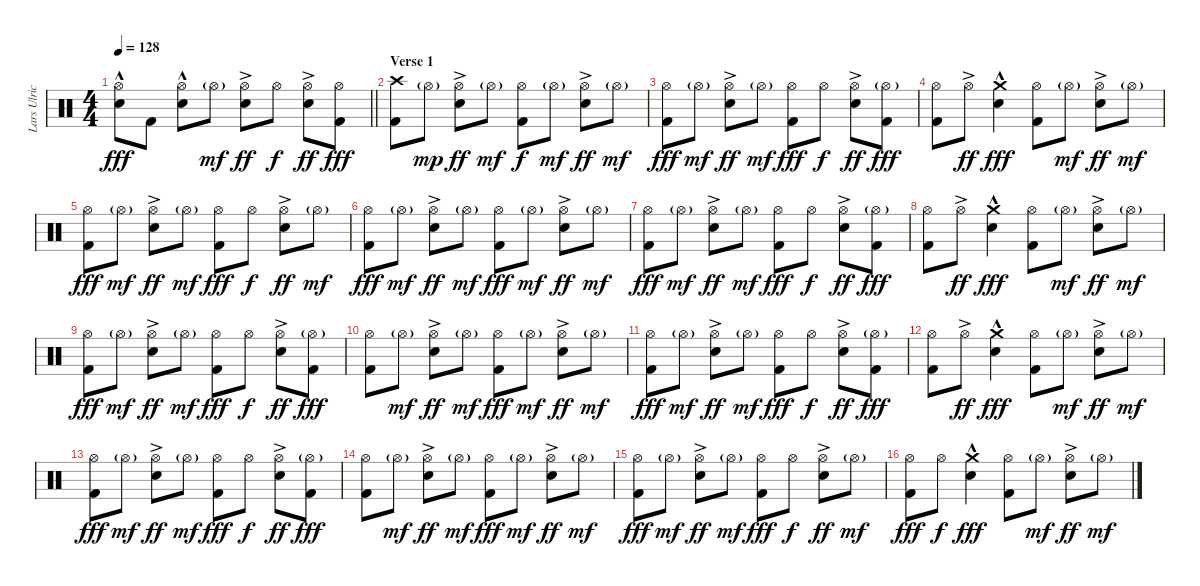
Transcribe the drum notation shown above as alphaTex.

\track ("Lars Ulrich (Drums)" "Lars Ulric") {instrument percussion}
\staff {score}
\articulation defaults
\ts (4 4)
\tempo 128
\clef neutral
\barLineRight lightlight
\ks c
("Hi-Hat (open)"{hac} "Electric Snare (hit)"{hac}).8{dy fff} "Kick (hit) 2".8 ("Hi-Hat (open)"{hac} "Electric Snare (hit)"{hac}).8 "Hi-Hat (open)"{g}.8{dy mf} ("Hi-Hat (open)"{ac} "Electric Snare (hit)"{ac}).8{dy ff} "Hi-Hat (open)".8{dy f} ("Hi-Hat (open)"{ac} "Electric Snare (hit)"{ac}).8{dy ff} ("Hi-Hat (open)" "Kick (hit) 2").8{dy fff} |
\section ("" "Verse 1")
("Crash high (hit)" "Kick (hit) 2").8 "Hi-Hat (open)"{g}.8{dy mp} ("Hi-Hat (open)"{ac} "Electric Snare (hit)"{ac}).8{dy ff} "Hi-Hat (open)"{g}.8{dy mf} ("Hi-Hat (open)" "Kick (hit) 2").8{dy f} "Hi-Hat (open)"{g}.8{dy mf} ("Hi-Hat (open)"{ac} "Electric Snare (hit)"{ac}).8{dy ff} "Hi-Hat (open)"{g}.8{dy mf} |
("Hi-Hat (open)" "Kick (hit) 2").8{dy fff} "Hi-Hat (open)"{g}.8{dy mf} ("Hi-Hat (open)"{ac} "Electric Snare (hit)"{ac}).8{dy ff} "Hi-Hat (open)"{g}.8{dy mf} ("Hi-Hat (open)" "Kick (hit) 2").8{dy fff} "Hi-Hat (open)".8{dy f} ("Hi-Hat (open)"{ac} "Electric Snare (hit)"{ac}).8{dy ff} ("Hi-Hat (open)"{g} "Kick (hit) 2").8{dy fff} |
("Hi-Hat (open)" "Kick (hit) 2").8 "Hi-Hat (open)"{ac}.8{dy ff} ("Crash medium (hit)" "Electric Snare (hit)"{hac}).4{dy fff} ("Hi-Hat (open)" "Kick (hit) 2").8 "Hi-Hat (open)"{g}.8{dy mf} ("Hi-Hat (open)"{ac} "Electric Snare (hit)"{ac}).8{dy ff} "Hi-Hat (open)"{g}.8{dy mf} |
("Hi-Hat (open)" "Kick (hit) 2").8{dy fff} "Hi-Hat (open)"{g}.8{dy mf} ("Hi-Hat (open)"{ac} "Electric Snare (hit)"{ac}).8{dy ff} "Hi-Hat (open)"{g}.8{dy mf} ("Hi-Hat (open)" "Kick (hit) 2").8{dy fff} "Hi-Hat (open)".8{dy f} ("Hi-Hat (open)"{ac} "Electric Snare (hit)"{ac}).8{dy ff} "Hi-Hat (open)"{g}.8{dy mf} |
("Hi-Hat (open)" "Kick (hit) 2").8{dy fff} "Hi-Hat (open)"{g}.8{dy mf} ("Hi-Hat (open)"{ac} "Electric Snare (hit)"{ac}).8{dy ff} "Hi-Hat (open)"{g}.8{dy mf} ("Hi-Hat (open)" "Kick (hit) 2").8{dy fff} "Hi-Hat (open)"{g}.8{dy mf} ("Hi-Hat (open)"{ac} "Electric Snare (hit)"{ac}).8{dy ff} "Hi-Hat (open)"{g}.8{dy mf} |
("Hi-Hat (open)" "Kick (hit) 2").8{dy fff} "Hi-Hat (open)"{g}.8{dy mf} ("Hi-Hat (open)"{ac} "Electric Snare (hit)"{ac}).8{dy ff} "Hi-Hat (open)"{g}.8{dy mf} ("Hi-Hat (open)" "Kick (hit) 2").8{dy fff} "Hi-Hat (open)".8{dy f} ("Hi-Hat (open)"{ac} "Electric Snare (hit)"{ac}).8{dy ff} ("Hi-Hat (open)"{g} "Kick (hit) 2").8{dy fff} |
("Hi-Hat (open)" "Kick (hit) 2").8 "Hi-Hat (open)"{ac}.8{dy ff} ("Crash medium (hit)" "Electric Snare (hit)"{hac}).4{dy fff} ("Hi-Hat (open)" "Kick (hit) 2").8 "Hi-Hat (open)"{g}.8{dy mf} ("Hi-Hat (open)"{ac} "Electric Snare (hit)"{ac}).8{dy ff} "Hi-Hat (open)"{g}.8{dy mf} |
("Hi-Hat (open)" "Kick (hit) 2").8{dy fff} "Hi-Hat (open)"{g}.8{dy mf} ("Hi-Hat (open)"{ac} "Electric Snare (hit)"{ac}).8{dy ff} "Hi-Hat (open)"{g}.8{dy mf} ("Hi-Hat (open)" "Kick (hit) 2").8{dy fff} "Hi-Hat (open)".8{dy f} ("Hi-Hat (open)"{ac} "Electric Snare (hit)"{ac}).8{dy ff} ("Hi-Hat (open)"{g} "Kick (hit) 2").8{dy fff} |
("Hi-Hat (open)" "Kick (hit) 2").8 "Hi-Hat (open)"{g}.8{dy mf} ("Hi-Hat (open)"{ac} "Electric Snare (hit)"{ac}).8{dy ff} "Hi-Hat (open)"{g}.8{dy mf} ("Hi-Hat (open)" "Kick (hit) 2").8{dy fff} "Hi-Hat (open)"{g}.8{dy mf} ("Hi-Hat (open)"{ac} "Electric Snare (hit)"{ac}).8{dy ff} "Hi-Hat (open)"{g}.8{dy mf} |
("Hi-Hat (open)" "Kick (hit) 2").8{dy fff} "Hi-Hat (open)"{g}.8{dy mf} ("Hi-Hat (open)"{ac} "Electric Snare (hit)"{ac}).8{dy ff} "Hi-Hat (open)"{g}.8{dy mf} ("Hi-Hat (open)" "Kick (hit) 2").8{dy fff} "Hi-Hat (open)".8{dy f} ("Hi-Hat (open)"{ac} "Electric Snare (hit)"{ac}).8{dy ff} ("Hi-Hat (open)"{g} "Kick (hit) 2").8{dy fff} |
("Hi-Hat (open)" "Kick (hit) 2").8 "Hi-Hat (open)"{ac}.8{dy ff} ("Crash medium (hit)" "Electric Snare (hit)"{hac}).4{dy fff} ("Hi-Hat (open)" "Kick (hit) 2").8 "Hi-Hat (open)"{g}.8{dy mf} ("Hi-Hat (open)"{ac} "Electric Snare (hit)"{ac}).8{dy ff} "Hi-Hat (open)"{g}.8{dy mf} |
("Hi-Hat (open)" "Kick (hit) 2").8{dy fff} "Hi-Hat (open)"{g}.8{dy mf} ("Hi-Hat (open)"{ac} "Electric Snare (hit)"{ac}).8{dy ff} "Hi-Hat (open)"{g}.8{dy mf} ("Hi-Hat (open)" "Kick (hit) 2").8{dy fff} "Hi-Hat (open)".8{dy f} ("Hi-Hat (open)"{ac} "Electric Snare (hit)"{ac}).8{dy ff} ("Hi-Hat (open)"{g} "Kick (hit) 2").8{dy fff} |
("Hi-Hat (open)" "Kick (hit) 2").8 "Hi-Hat (open)"{g}.8{dy mf} ("Hi-Hat (open)"{ac} "Electric Snare (hit)"{ac}).8{dy ff} "Hi-Hat (open)"{g}.8{dy mf} ("Hi-Hat (open)" "Kick (hit) 2").8{dy fff} "Hi-Hat (open)"{g}.8{dy mf} ("Hi-Hat (open)"{ac} "Electric Snare (hit)"{ac}).8{dy ff} "Hi-Hat (open)"{g}.8{dy mf} |
("Hi-Hat (open)" "Kick (hit) 2").8{dy fff} "Hi-Hat (open)"{g}.8{dy mf} ("Hi-Hat (open)"{ac} "Electric Snare (hit)"{ac}).8{dy ff} "Hi-Hat (open)"{g}.8{dy mf} ("Hi-Hat (open)" "Kick (hit) 2").8{dy fff} "Hi-Hat (open)".8{dy f} ("Hi-Hat (open)"{ac} "Electric Snare (hit)"{ac}).8{dy ff} "Hi-Hat (open)"{g}.8{dy mf} |
("Hi-Hat (open)" "Kick (hit) 2").8{dy fff} "Hi-Hat (open)".8{dy f} ("Crash medium (hit)" "Electric Snare (hit)"{hac}).4{dy fff} ("Hi-Hat (open)" "Kick (hit) 2").8 "Hi-Hat (open)"{g}.8{dy mf} ("Hi-Hat (open)"{ac} "Electric Snare (hit)"{ac}).8{dy ff} "Hi-Hat (open)"{g}.8{dy mf}
